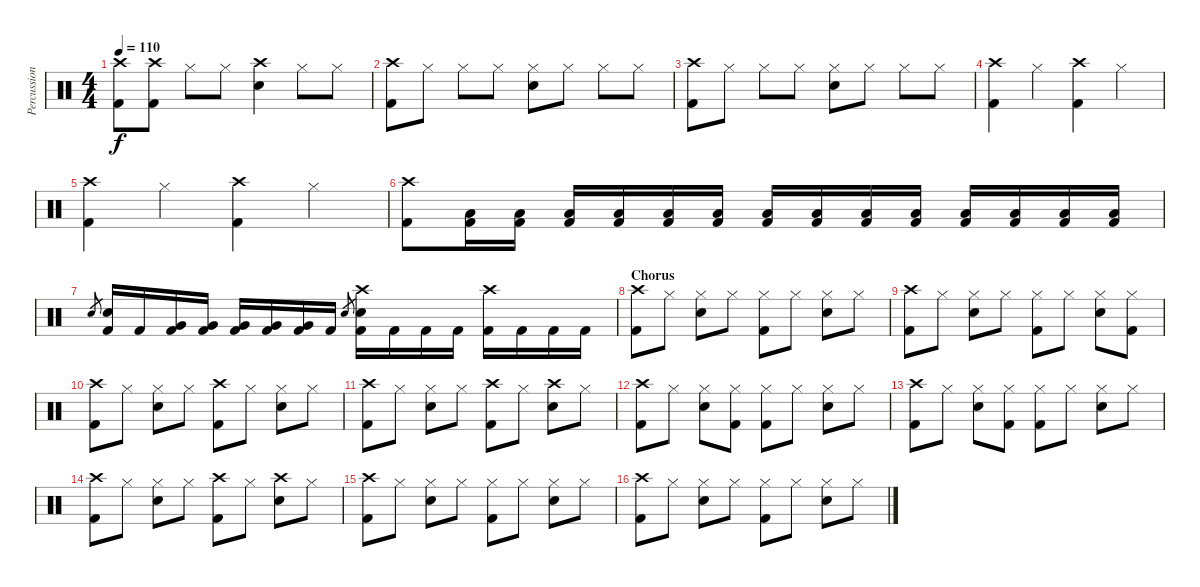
\track ("Percussions" "Percussion") {instrument percussion}
\staff {score}
\articulation defaults
\ts (4 4)
\tempo 110
\clef neutral
\ks c
("Crash high (hit)" "Kick (hit) 2").8{dy f} ("Crash high (hit)" "Kick (hit) 2").8 "Hi-Hat (closed)".8 "Hi-Hat (closed)".8 ("Crash high (hit)" "Electric Snare (hit)").4 "Hi-Hat (closed)".8 "Hi-Hat (closed)".8 |
("Crash high (hit)" "Kick (hit) 2").8 "Hi-Hat (closed)".8 "Hi-Hat (closed)".8 "Hi-Hat (closed)".8 ("Hi-Hat (closed)" "Electric Snare (hit)").8 "Hi-Hat (closed)".8 "Hi-Hat (closed)".8 "Hi-Hat (closed)".8 |
("Crash high (hit)" "Kick (hit) 2").8 "Hi-Hat (closed)".8 "Hi-Hat (closed)".8 "Hi-Hat (closed)".8 ("Hi-Hat (closed)" "Electric Snare (hit)").8 "Hi-Hat (closed)".8 "Hi-Hat (closed)".8 "Hi-Hat (closed)".8 |
("Crash high (hit)" "Kick (hit) 2").4 "Hi-Hat (closed)".4 ("Crash high (hit)" "Kick (hit) 2").4 "Hi-Hat (closed)".4 |
("Crash high (hit)" "Kick (hit) 2").4 "Hi-Hat (closed)".4 ("Crash high (hit)" "Kick (hit) 2").4 "Hi-Hat (closed)".4 |
("Crash high (hit)" "Kick (hit) 2").8 ("Low Tom (hit)" "Kick (hit) 2").16 ("Low Tom (hit)" "Kick (hit) 2").16 ("Low Tom (hit)" "Kick (hit) 2").16 ("Low Tom (hit)" "Kick (hit) 2").16 ("Low Tom (hit)" "Kick (hit) 2").16 ("Low Tom (hit)" "Kick (hit) 2").16 ("Low Tom (hit)" "Kick (hit) 2").16 ("Low Tom (hit)" "Kick (hit) 2").16 ("Low Tom (hit)" "Kick (hit) 2").16 ("Low Tom (hit)" "Kick (hit) 2").16 ("Low Tom (hit)" "Kick (hit) 2").16 ("Low Tom (hit)" "Kick (hit) 2").16 ("Low Tom (hit)" "Kick (hit) 2").16 ("Low Tom (hit)" "Kick (hit) 2").16 |
"Electric Snare (hit)".8{gr} ("Electric Snare (hit)" "Kick (hit) 2").16 "Kick (hit) 2".16 ("Very Low Tom (hit)" "Kick (hit) 2").16 ("Very Low Tom (hit)" "Kick (hit) 2").16 ("Very Low Tom (hit)" "Kick (hit) 2").16 ("Very Low Tom (hit)" "Kick (hit) 2").16 ("Very Low Tom (hit)" "Kick (hit) 2").16 "Kick (hit) 2".16 "Electric Snare (hit)".8{gr} ("Crash high (hit)" "Electric Snare (hit)" "Kick (hit) 2").16 "Kick (hit) 2".16 "Kick (hit) 2".16 "Kick (hit) 2".16 ("Crash high (hit)" "Kick (hit) 2").16 "Kick (hit) 2".16 "Kick (hit) 2".16 "Kick (hit) 2".16 |
\section ("" "Chorus")
("Crash high (hit)" "Kick (hit) 2").8 "Hi-Hat (closed)".8 ("Hi-Hat (closed)" "Electric Snare (hit)").8 "Hi-Hat (closed)".8 ("Hi-Hat (closed)" "Kick (hit) 2").8 "Hi-Hat (closed)".8 ("Hi-Hat (closed)" "Electric Snare (hit)").8 "Hi-Hat (closed)".8 |
("Crash high (hit)" "Kick (hit) 2").8 "Hi-Hat (closed)".8 ("Hi-Hat (closed)" "Electric Snare (hit)").8 "Hi-Hat (closed)".8 ("Hi-Hat (closed)" "Kick (hit) 2").8 "Hi-Hat (closed)".8 ("Hi-Hat (closed)" "Electric Snare (hit)").8 ("Hi-Hat (closed)" "Kick (hit) 2").8 |
("Crash high (hit)" "Kick (hit) 2").8 "Hi-Hat (closed)".8 ("Hi-Hat (closed)" "Electric Snare (hit)").8 "Hi-Hat (closed)".8 ("Crash high (hit)" "Kick (hit) 2").8 "Hi-Hat (closed)".8 ("Hi-Hat (closed)" "Electric Snare (hit)").8 "Hi-Hat (closed)".8 |
("Crash high (hit)" "Kick (hit) 2").8 "Hi-Hat (closed)".8 ("Hi-Hat (closed)" "Electric Snare (hit)").8 "Hi-Hat (closed)".8 ("Crash high (hit)" "Kick (hit) 2").8 "Hi-Hat (closed)".8 ("Crash high (hit)" "Electric Snare (hit)").8 "Hi-Hat (closed)".8 |
("Crash high (hit)" "Kick (hit) 2").8 "Hi-Hat (closed)".8 ("Hi-Hat (closed)" "Electric Snare (hit)").8 ("Hi-Hat (closed)" "Kick (hit) 2").8 ("Hi-Hat (closed)" "Kick (hit) 2").8 "Hi-Hat (closed)".8 ("Hi-Hat (closed)" "Electric Snare (hit)").8 "Hi-Hat (closed)".8 |
("Crash high (hit)" "Kick (hit) 2").8 "Hi-Hat (closed)".8 ("Hi-Hat (closed)" "Electric Snare (hit)").8 ("Hi-Hat (closed)" "Kick (hit) 2").8 ("Hi-Hat (closed)" "Kick (hit) 2").8 "Hi-Hat (closed)".8 ("Hi-Hat (closed)" "Electric Snare (hit)").8 "Hi-Hat (closed)".8 |
("Crash high (hit)" "Kick (hit) 2").8 "Hi-Hat (closed)".8 ("Hi-Hat (closed)" "Electric Snare (hit)").8 "Hi-Hat (closed)".8 ("Crash high (hit)" "Kick (hit) 2").8 "Hi-Hat (closed)".8 ("Crash high (hit)" "Electric Snare (hit)").8 "Hi-Hat (closed)".8 |
("Crash high (hit)" "Kick (hit) 2").8 "Hi-Hat (closed)".8 ("Hi-Hat (closed)" "Electric Snare (hit)").8 "Hi-Hat (closed)".8 ("Hi-Hat (closed)" "Kick (hit) 2").8 "Hi-Hat (closed)".8 ("Hi-Hat (closed)" "Electric Snare (hit)").8 "Hi-Hat (closed)".8 |
("Crash high (hit)" "Kick (hit) 2").8 "Hi-Hat (closed)".8 ("Hi-Hat (closed)" "Electric Snare (hit)").8 "Hi-Hat (closed)".8 ("Hi-Hat (closed)" "Kick (hit) 2").8 "Hi-Hat (closed)".8 ("Hi-Hat (closed)" "Electric Snare (hit)").8 "Hi-Hat (closed)".8
